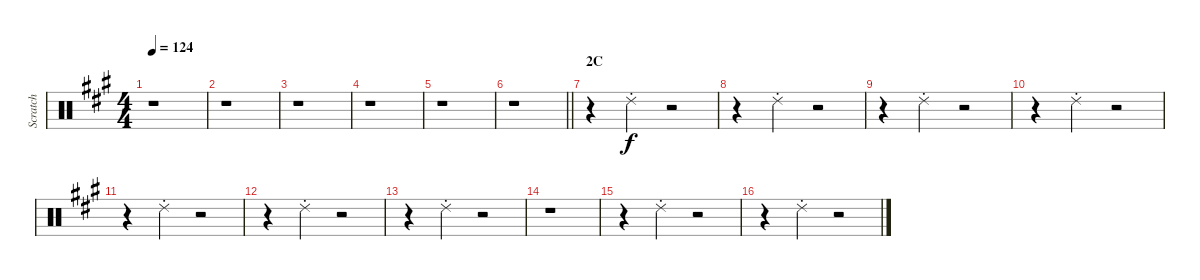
\track ("Scratch" "Scratch") {instrument percussion}
\staff {score}
\articulation defaults
\ts (4 4)
\tempo 124
\clef neutral
\ks a
r.1{dy f} |
r.1 |
r.1 |
r.1 |
r.1 |
\barLineRight lightlight
r.1 |
\section ("" "2C")
r.4 "Ride (choke) 2".4 r.2 |
r.4 "Ride (choke) 2".4 r.2 |
r.4 "Ride (choke) 2".4 r.2 |
r.4 "Ride (choke) 2".4 r.2 |
r.4 "Ride (choke) 2".4 r.2 |
r.4 "Ride (choke) 2".4 r.2 |
r.4 "Ride (choke) 2".4 r.2 |
r.1 |
r.4 "Ride (choke) 2".4 r.2 |
r.4 "Ride (choke) 2".4 r.2
